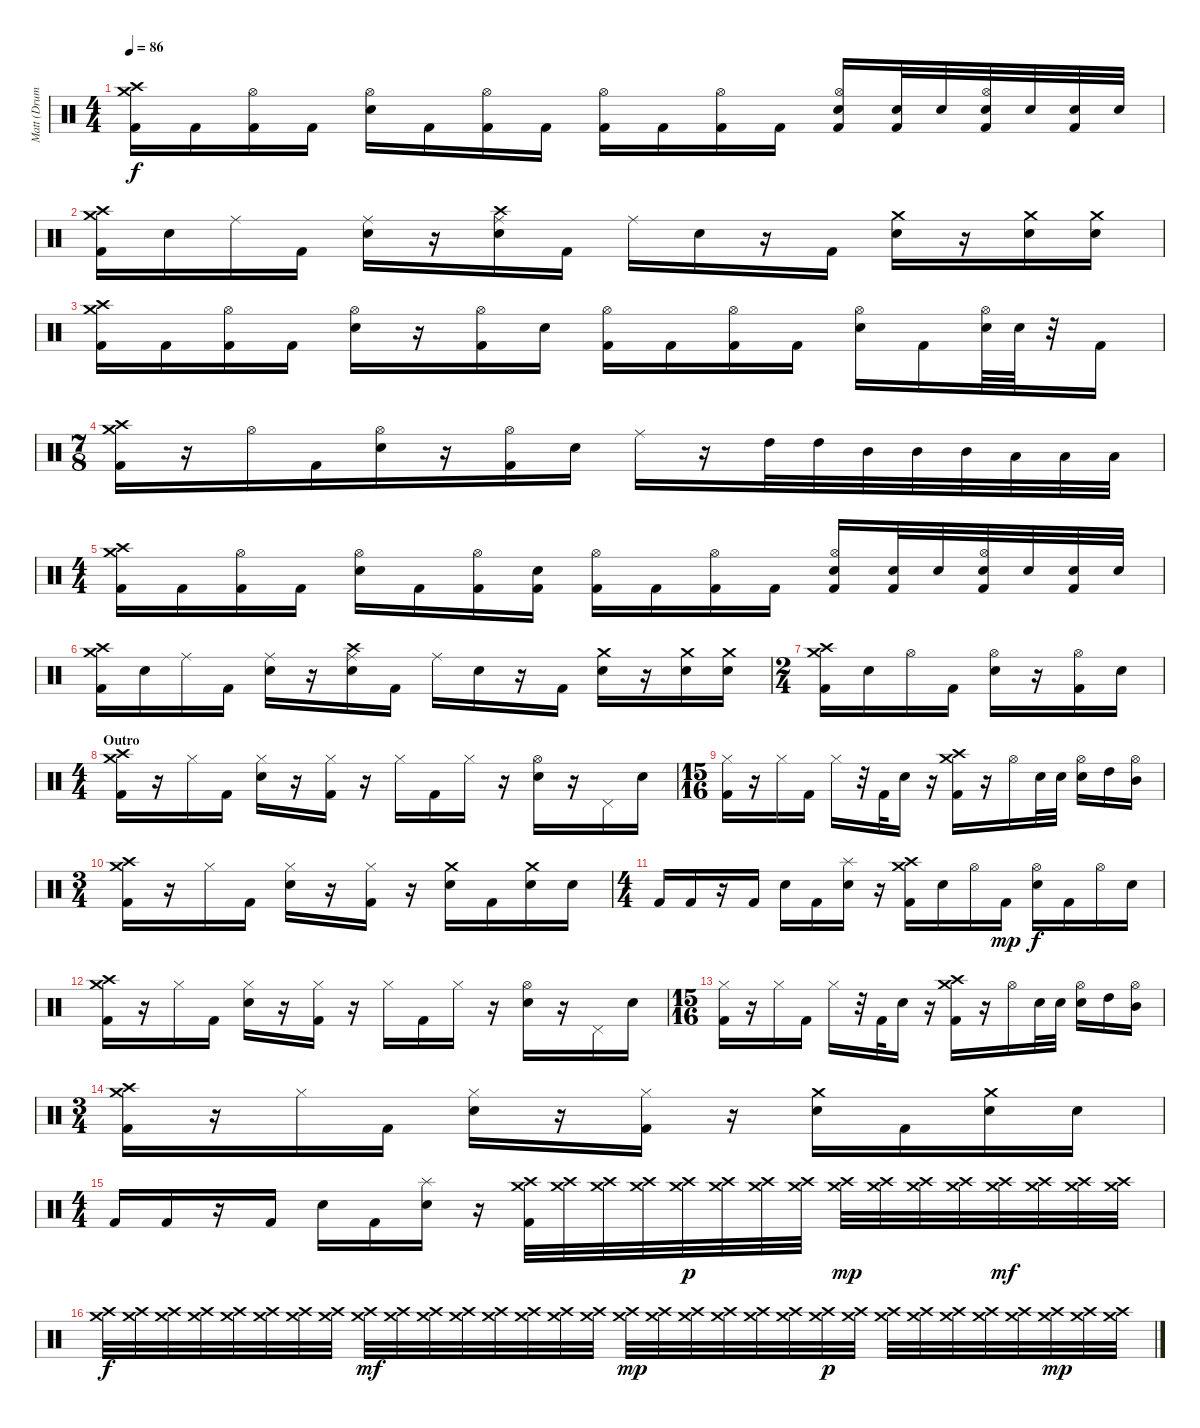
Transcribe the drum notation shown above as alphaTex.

\track ("Matt (Drums)" "Matt (Drum") {instrument percussion}
\staff {score}
\articulation defaults
\ts (4 4)
\tempo 86
\clef neutral
\ks c
("Crash medium (hit)" "Crash high (hit)" "Kick (hit) 2").16{dy f} "Kick (hit) 2".16 ("Hi-Hat (open)" "Kick (hit) 2").16 "Kick (hit) 2".16 ("Hi-Hat (open)" "Snare (hit) 2").16 "Kick (hit) 2".16 ("Hi-Hat (open)" "Kick (hit) 2").16 "Kick (hit) 2".16 ("Hi-Hat (open)" "Kick (hit) 2").16 "Kick (hit) 2".16 ("Hi-Hat (open)" "Kick (hit) 2").16 "Kick (hit) 2".16 ("Hi-Hat (open)" "Snare (hit) 2" "Kick (hit) 2").16 ("Snare (hit) 2" "Kick (hit) 2").32 "Snare (hit) 2".32 ("Hi-Hat (open)" "Snare (hit) 2" "Kick (hit) 2").32 "Snare (hit) 2".32 ("Snare (hit) 2" "Kick (hit) 2").32 "Snare (hit) 2".32 |
("Crash medium (hit)" "Crash high (hit)" "Kick (hit) 2").16 "Snare (hit) 2".16 "Ride (middle)".16 "Kick (hit) 2".16 ("Ride (middle)" "Snare (hit) 2").16 r.16 ("Crash high (hit)" "Ride (middle)" "Snare (hit) 2").16 "Kick (hit) 2".16 "Ride (middle)".16 "Snare (hit) 2".16 r.16 "Kick (hit) 2".16 ("Crash medium (hit)" "Snare (hit) 2").16 r.16 ("Crash medium (hit)" "Snare (hit) 2").16 ("Crash medium (hit)" "Snare (hit) 2").16 |
("Crash medium (hit)" "Crash high (hit)" "Kick (hit) 2").16 "Kick (hit) 2".16 ("Hi-Hat (open)" "Kick (hit) 2").16 "Kick (hit) 2".16 ("Hi-Hat (open)" "Snare (hit) 2").16 r.16 ("Hi-Hat (open)" "Kick (hit) 2").16 "Snare (hit) 2".16 ("Hi-Hat (open)" "Kick (hit) 2").16 "Kick (hit) 2".16 ("Hi-Hat (open)" "Kick (hit) 2").16 "Kick (hit) 2".16 ("Hi-Hat (open)" "Snare (hit) 2").16 "Kick (hit) 2".16 ("Hi-Hat (open)" "Snare (hit) 2").64 "Snare (hit) 2".64 r.32 "Kick (hit) 2".16 |
\ts (7 8)
("Crash medium (hit)" "Crash high (hit)" "Kick (hit) 2").16 r.16 "Hi-Hat (open)".16 "Kick (hit) 2".16 ("Hi-Hat (open)" "Snare (hit) 2").16 r.16 ("Hi-Hat (open)" "Kick (hit) 2").16 "Snare (hit) 2".16 "Ride (middle)".16 r.16 "High Tom (hit)".32 "High Tom (hit)".32 "Mid Tom (hit)".32 "Mid Tom (hit)".32 "Mid Tom (hit)".32 "Low Tom (hit)".32 "Low Tom (hit)".32 "Low Tom (hit)".32 |
\ts (4 4)
("Crash medium (hit)" "Crash high (hit)" "Kick (hit) 2").16 "Kick (hit) 2".16 ("Hi-Hat (open)" "Kick (hit) 2").16 "Kick (hit) 2".16 ("Hi-Hat (open)" "Snare (hit) 2").16 "Kick (hit) 2".16 ("Hi-Hat (open)" "Kick (hit) 2").16 ("Snare (hit) 2" "Kick (hit) 2").16 ("Hi-Hat (open)" "Kick (hit) 2").16 "Kick (hit) 2".16 ("Hi-Hat (open)" "Kick (hit) 2").16 "Kick (hit) 2".16 ("Hi-Hat (open)" "Snare (hit) 2" "Kick (hit) 2").16 ("Snare (hit) 2" "Kick (hit) 2").32 "Snare (hit) 2".32 ("Hi-Hat (open)" "Snare (hit) 2" "Kick (hit) 2").32 "Snare (hit) 2".32 ("Snare (hit) 2" "Kick (hit) 2").32 "Snare (hit) 2".32 |
("Crash medium (hit)" "Crash high (hit)" "Kick (hit) 2").16 "Snare (hit) 2".16 "Ride (middle)".16 "Kick (hit) 2".16 ("Ride (middle)" "Snare (hit) 2").16 r.16 ("Crash high (hit)" "Ride (middle)" "Snare (hit) 2").16 "Kick (hit) 2".16 "Ride (middle)".16 "Snare (hit) 2".16 r.16 "Kick (hit) 2".16 ("Crash medium (hit)" "Snare (hit) 2").16 r.16 ("Crash medium (hit)" "Snare (hit) 2").16 ("Crash medium (hit)" "Snare (hit) 2").16 |
\ts (2 4)
("Crash medium (hit)" "Crash high (hit)" "Kick (hit) 2").16 "Snare (hit) 2".16 "Hi-Hat (open)".16 "Kick (hit) 2".16 ("Hi-Hat (open)" "Snare (hit) 2").16 r.16 ("Hi-Hat (open)" "Kick (hit) 2").16 "Snare (hit) 2".16 |
\ts (4 4)
\section ("" "Outro")
("Crash medium (hit)" "Crash high (hit)" "Kick (hit) 2").16 r.16 "Hi-Hat (closed)".16 "Kick (hit) 2".16 ("Hi-Hat (closed)" "Snare (hit) 2").16 r.16 ("Hi-Hat (closed)" "Kick (hit) 2").16 r.16 "Hi-Hat (closed)".16 "Kick (hit) 2".16 "Hi-Hat (closed)".16 r.16 ("Hi-Hat (open)" "Snare (hit) 2").16 r.16 "Pedal Hi-Hat (hit)".16 "Snare (hit) 2".16 |
\ts (15 16)
("Hi-Hat (closed)" "Kick (hit) 2").16 r.16 "Hi-Hat (closed)".16 "Kick (hit) 2".16 "Hi-Hat (closed)".16 r.32 "Kick (hit) 2".32 "Snare (hit) 2".16 r.16 ("Crash medium (hit)" "Crash high (hit)" "Kick (hit) 2").16 r.16 "Hi-Hat (open)".16 "Snare (hit) 2".32 "Snare (hit) 2".32 ("Hi-Hat (open)" "Snare (hit) 2").16 "High Tom (hit)".16 ("Hi-Hat (open)" "Mid Tom (hit)").16 |
\ts (3 4)
("Crash medium (hit)" "Crash high (hit)" "Kick (hit) 2").16 r.16 "Hi-Hat (closed)".16 "Kick (hit) 2".16 ("Hi-Hat (closed)" "Snare (hit) 2").16 r.16 ("Hi-Hat (closed)" "Kick (hit) 2").16 r.16 ("Crash medium (hit)" "Snare (hit) 2").16 "Kick (hit) 2".16 ("Crash medium (hit)" "Snare (hit) 2").16 "Snare (hit) 2".16 |
\ts (4 4)
"Kick (hit) 2".16 "Kick (hit) 2".16 r.16 "Kick (hit) 2".16 "Snare (hit) 2".16 "Kick (hit) 2".16 ("Splash (hit)" "Snare (hit) 2").16 r.16 ("Crash medium (hit)" "Crash high (hit)" "Kick (hit) 2").16 "Snare (hit) 2".16 "Hi-Hat (open)".16 "Kick (hit) 2".16{dy mp} ("Hi-Hat (open)" "Snare (hit) 2").16{dy f} "Kick (hit) 2".16 "Hi-Hat (open)".16 "Snare (hit) 2".16 |
("Crash medium (hit)" "Crash high (hit)" "Kick (hit) 2").16 r.16 "Hi-Hat (closed)".16 "Kick (hit) 2".16 ("Hi-Hat (closed)" "Snare (hit) 2").16 r.16 ("Hi-Hat (closed)" "Kick (hit) 2").16 r.16 "Hi-Hat (closed)".16 "Kick (hit) 2".16 "Hi-Hat (closed)".16 r.16 ("Hi-Hat (open)" "Snare (hit) 2").16 r.16 "Pedal Hi-Hat (hit)".16 "Snare (hit) 2".16 |
\ts (15 16)
("Hi-Hat (closed)" "Kick (hit) 2").16 r.16 "Hi-Hat (closed)".16 "Kick (hit) 2".16 "Hi-Hat (closed)".16 r.32 "Kick (hit) 2".32 "Snare (hit) 2".16 r.16 ("Crash medium (hit)" "Crash high (hit)" "Kick (hit) 2").16 r.16 "Hi-Hat (open)".16 "Snare (hit) 2".32 "Snare (hit) 2".32 ("Hi-Hat (open)" "Snare (hit) 2").16 "High Tom (hit)".16 ("Hi-Hat (open)" "Mid Tom (hit)").16 |
\ts (3 4)
("Crash medium (hit)" "Crash high (hit)" "Kick (hit) 2").16 r.16 "Hi-Hat (closed)".16 "Kick (hit) 2".16 ("Hi-Hat (closed)" "Snare (hit) 2").16 r.16 ("Hi-Hat (closed)" "Kick (hit) 2").16 r.16 ("Crash medium (hit)" "Snare (hit) 2").16 "Kick (hit) 2".16 ("Crash medium (hit)" "Snare (hit) 2").16 "Snare (hit) 2".16 |
\ts (4 4)
"Kick (hit) 2".16 "Kick (hit) 2".16 r.16 "Kick (hit) 2".16 "Snare (hit) 2".16 "Kick (hit) 2".16 ("Splash (hit)" "Snare (hit) 2").16 r.16 ("Crash medium (hit)" "Crash high (hit)" "Kick (hit) 2").32 ("Crash medium (hit)" "Crash high (hit)").32 ("Crash medium (hit)" "Crash high (hit)").32 ("Crash medium (hit)" "Crash high (hit)").32 ("Crash medium (hit)" "Crash high (hit)").32{dy p} ("Crash medium (hit)" "Crash high (hit)").32 ("Crash medium (hit)" "Crash high (hit)").32 ("Crash medium (hit)" "Crash high (hit)").32 ("Crash medium (hit)" "Crash high (hit)").32{dy mp} ("Crash medium (hit)" "Crash high (hit)").32 ("Crash medium (hit)" "Crash high (hit)").32 ("Crash medium (hit)" "Crash high (hit)").32 ("Crash medium (hit)" "Crash high (hit)").32{dy mf} ("Crash medium (hit)" "Crash high (hit)").32 ("Crash medium (hit)" "Crash high (hit)").32 ("Crash medium (hit)" "Crash high (hit)").32 |
("Crash medium (hit)" "Crash high (hit)").32{dy f} ("Crash medium (hit)" "Crash high (hit)").32 ("Crash medium (hit)" "Crash high (hit)").32 ("Crash medium (hit)" "Crash high (hit)").32 ("Crash medium (hit)" "Crash high (hit)").32 ("Crash medium (hit)" "Crash high (hit)").32 ("Crash medium (hit)" "Crash high (hit)").32 ("Crash medium (hit)" "Crash high (hit)").32 ("Crash medium (hit)" "Crash high (hit)").32{dy mf} ("Crash medium (hit)" "Crash high (hit)").32 ("Crash medium (hit)" "Crash high (hit)").32 ("Crash medium (hit)" "Crash high (hit)").32 ("Crash medium (hit)" "Crash high (hit)").32 ("Crash medium (hit)" "Crash high (hit)").32 ("Crash medium (hit)" "Crash high (hit)").32 ("Crash medium (hit)" "Crash high (hit)").32 ("Crash medium (hit)" "Crash high (hit)").32{dy mp} ("Crash medium (hit)" "Crash high (hit)").32 ("Crash medium (hit)" "Crash high (hit)").32 ("Crash medium (hit)" "Crash high (hit)").32 ("Crash medium (hit)" "Crash high (hit)").32 ("Crash medium (hit)" "Crash high (hit)").32 ("Crash medium (hit)" "Crash high (hit)").32{dy p} ("Crash medium (hit)" "Crash high (hit)").32 ("Crash medium (hit)" "Crash high (hit)").32 ("Crash medium (hit)" "Crash high (hit)").32 ("Crash medium (hit)" "Crash high (hit)").32 ("Crash medium (hit)" "Crash high (hit)").32 ("Crash medium (hit)" "Crash high (hit)").32 ("Crash medium (hit)" "Crash high (hit)").32{dy mp} ("Crash medium (hit)" "Crash high (hit)").32 ("Crash medium (hit)" "Crash high (hit)").32
